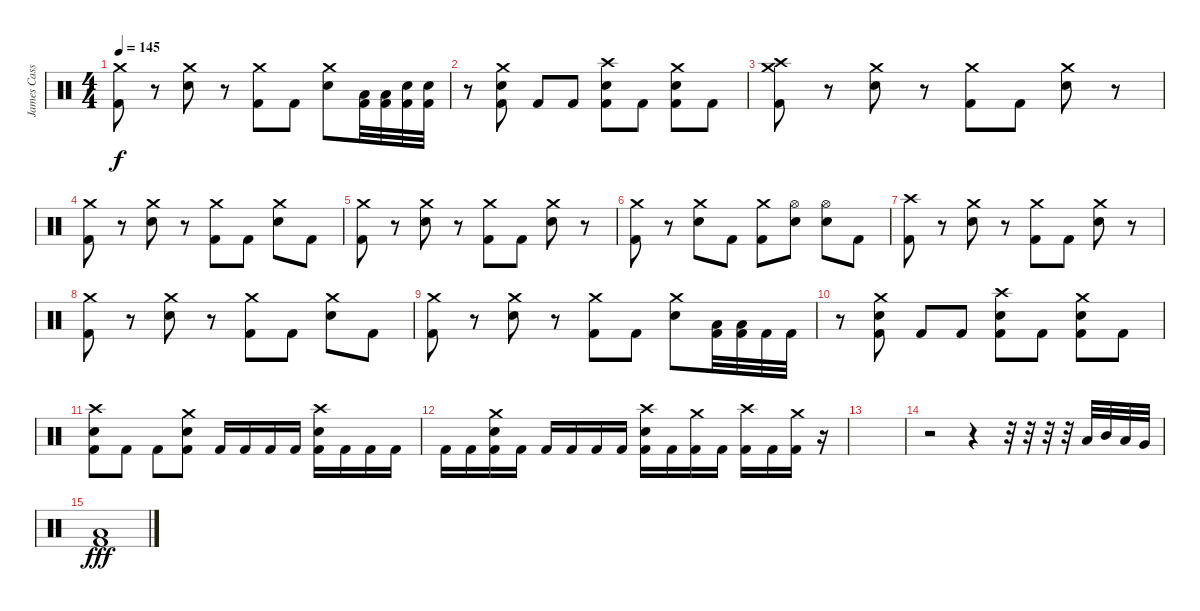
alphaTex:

\track ("James Cassells" "James Cass") {instrument percussion}
\staff {score}
\articulation defaults
\ts (4 4)
\tempo 145
\clef neutral
\ks c
("Crash medium (hit)" "Kick (hit) 2").8{dy f} r.8 ("Crash medium (hit)" "Electric Snare (hit)").8 r.8 ("Crash medium (hit)" "Kick (hit) 2").8 "Kick (hit) 2".8 ("Crash medium (hit)" "Electric Snare (hit)").8 ("Low Tom (hit)" "Kick (hit) 2").32 ("Low Floor Tom (hit)" "Kick (hit) 2").32 ("Electric Snare (hit)" "Kick (hit) 2").32 ("Electric Snare (hit)" "Kick (hit) 2").32 |
r.8 ("Crash medium (hit)" "Electric Snare (hit)" "Kick (hit) 2").8 "Kick (hit) 2".8 "Kick (hit) 2".8 ("Crash high (hit)" "Electric Snare (hit)" "Kick (hit) 2").8 "Kick (hit) 2".8 ("Crash medium (hit)" "Electric Snare (hit)" "Kick (hit) 2").8 "Kick (hit) 2".8 |
("Crash high (hit)" "Crash medium (hit)" "Kick (hit) 2").8 r.8 ("Crash medium (hit)" "Electric Snare (hit)").8 r.8 ("Crash medium (hit)" "Kick (hit) 2").8 "Kick (hit) 2".8 ("Crash medium (hit)" "Electric Snare (hit)").8 r.8 |
("Crash medium (hit)" "Kick (hit) 2").8 r.8 ("Crash medium (hit)" "Electric Snare (hit)").8 r.8 ("Crash medium (hit)" "Kick (hit) 2").8 "Kick (hit) 2".8 ("Crash medium (hit)" "Electric Snare (hit)").8 "Kick (hit) 2".8 |
("Crash medium (hit)" "Kick (hit) 2").8 r.8 ("Crash medium (hit)" "Electric Snare (hit)").8 r.8 ("Crash medium (hit)" "Kick (hit) 2").8 "Kick (hit) 2".8 ("Crash medium (hit)" "Electric Snare (hit)").8 r.8 |
("Crash medium (hit)" "Kick (hit) 2").8 r.8 ("Crash medium (hit)" "Electric Snare (hit)").8 "Kick (hit) 2".8 ("Crash medium (hit)" "Kick (hit) 2").8 ("Hi-Hat (open)" "Electric Snare (hit)").8 ("Hi-Hat (open)" "Electric Snare (hit)").8 "Kick (hit) 2".8 |
("Crash high (hit)" "Kick (hit) 2").8 r.8 ("Crash medium (hit)" "Electric Snare (hit)").8 r.8 ("Crash medium (hit)" "Kick (hit) 2").8 "Kick (hit) 2".8 ("Crash medium (hit)" "Electric Snare (hit)").8 r.8 |
("Crash medium (hit)" "Kick (hit) 2").8 r.8 ("Crash medium (hit)" "Electric Snare (hit)").8 r.8 ("Crash medium (hit)" "Kick (hit) 2").8 "Kick (hit) 2".8 ("Crash medium (hit)" "Electric Snare (hit)").8 "Kick (hit) 2".8 |
("Crash medium (hit)" "Kick (hit) 2").8 r.8 ("Crash medium (hit)" "Electric Snare (hit)").8 r.8 ("Crash medium (hit)" "Kick (hit) 2").8 "Kick (hit) 2".8 ("Crash medium (hit)" "Electric Snare (hit)").8 ("Low Tom (hit)" "Kick (hit) 2").32 ("Low Floor Tom (hit)" "Kick (hit) 2").32 "Kick (hit) 2".32 "Kick (hit) 2".32 |
r.8 ("Crash medium (hit)" "Electric Snare (hit)" "Kick (hit) 2").8 "Kick (hit) 2".8 "Kick (hit) 2".8 ("Crash high (hit)" "Electric Snare (hit)" "Kick (hit) 2").8 "Kick (hit) 2".8 ("Crash medium (hit)" "Electric Snare (hit)" "Kick (hit) 2").8 "Kick (hit) 2".8 |
("Crash high (hit)" "Electric Snare (hit)" "Kick (hit) 2").8 "Kick (hit) 2".8 "Kick (hit) 2".8 ("Crash medium (hit)" "Electric Snare (hit)" "Kick (hit) 2").8 "Kick (hit) 2".16 "Kick (hit) 2".16 "Kick (hit) 2".16 "Kick (hit) 2".16 ("Crash high (hit)" "Electric Snare (hit)" "Kick (hit) 2").16 "Kick (hit) 2".16 "Kick (hit) 2".16 "Kick (hit) 2".16 |
"Kick (hit) 2".16 "Kick (hit) 2".16 ("Crash medium (hit)" "Electric Snare (hit)" "Kick (hit) 2").16 "Kick (hit) 2".16 "Kick (hit) 2".16 "Kick (hit) 2".16 "Kick (hit) 2".16 "Kick (hit) 2".16 ("Crash high (hit)" "Electric Snare (hit)" "Kick (hit) 2").16 "Kick (hit) 2".16 ("Crash medium (hit)" "Kick (hit) 2").16 "Kick (hit) 2".16 ("Crash high (hit)" "Kick (hit) 2").16 "Kick (hit) 2".16 ("Crash medium (hit)" "Kick (hit) 2").16 r.16 |
|
r.2 r.4 r.32 r.32 r.32 r.32 "Low Tom (hit)".32 "Mid Tom (hit)".32 "Low Tom (hit)".32 "Very Low Tom (hit)".32 |
("Low Floor Tom (hit)" "Kick (hit) 2").1{bd 240 dy fff}
